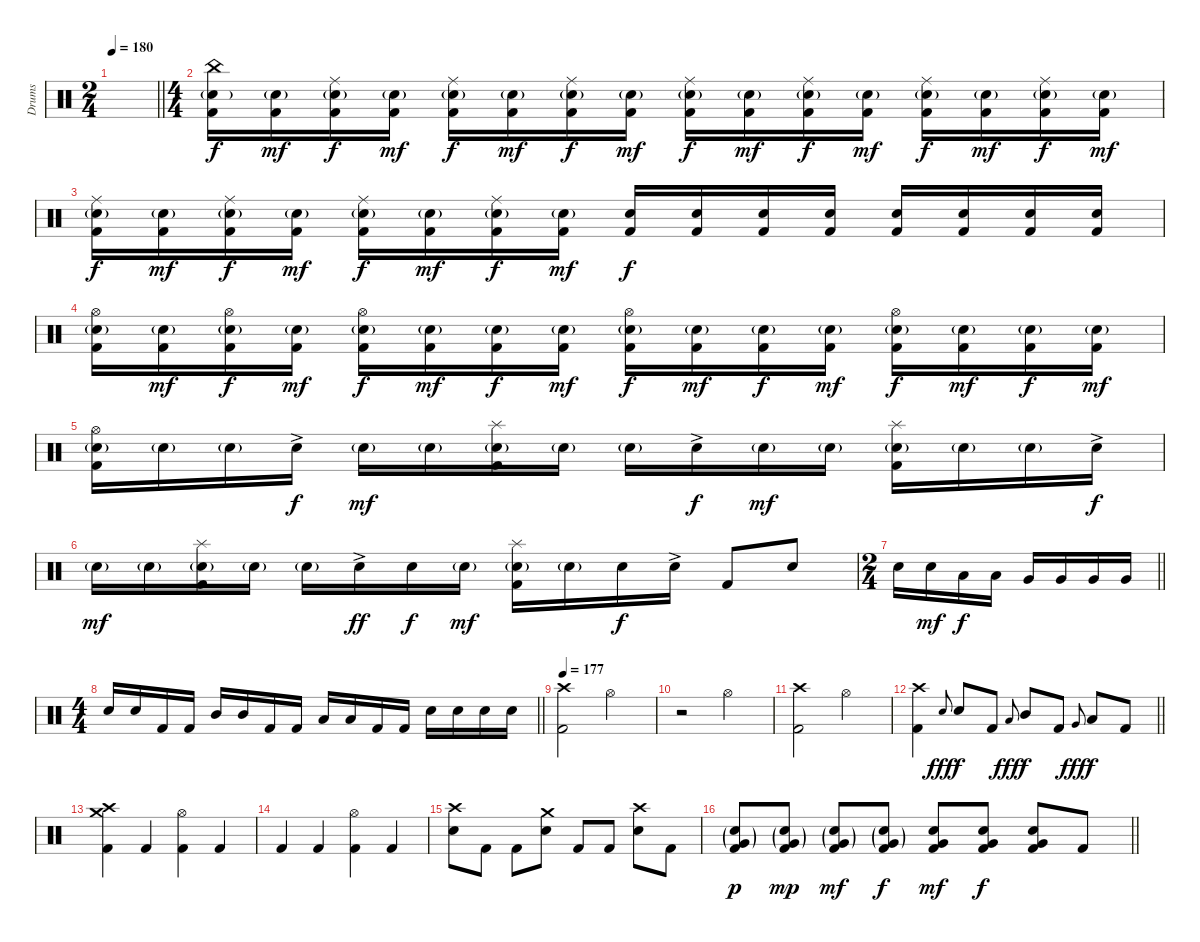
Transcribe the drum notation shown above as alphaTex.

\track ("Drums" "Drums") {instrument percussion}
\staff {score}
\articulation defaults
\ts (2 4)
\tempo 180
\clef neutral
\barLineRight lightlight
\ks c
|
\ts (4 4)
("China (hit)" "Electric Snare (hit)"{g} "Kick (hit) 2").16{dy f} ("Electric Snare (hit)"{g} "Kick (hit) 2").16{dy mf} ("Ride (middle)" "Electric Snare (hit)"{g} "Kick (hit) 2").16{dy f} ("Electric Snare (hit)"{g} "Kick (hit) 2").16{dy mf} ("Ride (middle)" "Electric Snare (hit)"{g} "Kick (hit) 2").16{dy f} ("Electric Snare (hit)"{g} "Kick (hit) 2").16{dy mf} ("Ride (middle)" "Electric Snare (hit)"{g} "Kick (hit) 2").16{dy f} ("Electric Snare (hit)"{g} "Kick (hit) 2").16{dy mf} ("Ride (middle)" "Electric Snare (hit)"{g} "Kick (hit) 2").16{dy f} ("Electric Snare (hit)"{g} "Kick (hit) 2").16{dy mf} ("Ride (middle)" "Electric Snare (hit)"{g} "Kick (hit) 2").16{dy f} ("Electric Snare (hit)"{g} "Kick (hit) 2").16{dy mf} ("Ride (middle)" "Electric Snare (hit)"{g} "Kick (hit) 2").16{dy f} ("Electric Snare (hit)"{g} "Kick (hit) 2").16{dy mf} ("Ride (middle)" "Electric Snare (hit)"{g} "Kick (hit) 2").16{dy f} ("Electric Snare (hit)"{g} "Kick (hit) 2").16{dy mf} |
("Ride (middle)" "Electric Snare (hit)"{g} "Kick (hit) 2").16{dy f} ("Electric Snare (hit)"{g} "Kick (hit) 2").16{dy mf} ("Ride (middle)" "Electric Snare (hit)"{g} "Kick (hit) 2").16{dy f} ("Electric Snare (hit)"{g} "Kick (hit) 2").16{dy mf} ("Ride (middle)" "Electric Snare (hit)"{g} "Kick (hit) 2").16{dy f} ("Electric Snare (hit)"{g} "Kick (hit) 2").16{dy mf} ("Ride (middle)" "Electric Snare (hit)"{g} "Kick (hit) 2").16{dy f} ("Electric Snare (hit)"{g} "Kick (hit) 2").16{dy mf} ("Electric Snare (hit)" "Kick (hit) 2").16{dy f} ("Electric Snare (hit)" "Kick (hit) 2").16 ("Electric Snare (hit)" "Kick (hit) 2").16 ("Electric Snare (hit)" "Kick (hit) 2").16 ("Electric Snare (hit)" "Kick (hit) 2").16 ("Electric Snare (hit)" "Kick (hit) 2").16 ("Electric Snare (hit)" "Kick (hit) 2").16 ("Electric Snare (hit)" "Kick (hit) 2").16 |
("Hi-Hat (open)" "Electric Snare (hit)"{g} "Kick (hit) 2").16 ("Electric Snare (hit)"{g} "Kick (hit) 2").16{dy mf} ("Hi-Hat (open)" "Electric Snare (hit)"{g} "Kick (hit) 2").16{dy f} ("Electric Snare (hit)"{g} "Kick (hit) 2").16{dy mf} ("Hi-Hat (open)" "Electric Snare (hit)"{g} "Kick (hit) 2").16{dy f} ("Electric Snare (hit)"{g} "Kick (hit) 2").16{dy mf} ("Electric Snare (hit)"{g} "Kick (hit) 2").16{dy f} ("Electric Snare (hit)"{g} "Kick (hit) 2").16{dy mf} ("Hi-Hat (open)" "Electric Snare (hit)"{g} "Kick (hit) 2").16{dy f} ("Electric Snare (hit)"{g} "Kick (hit) 2").16{dy mf} ("Electric Snare (hit)"{g} "Kick (hit) 2").16{dy f} ("Electric Snare (hit)"{g} "Kick (hit) 2").16{dy mf} ("Hi-Hat (open)" "Electric Snare (hit)"{g} "Kick (hit) 2").16{dy f} ("Electric Snare (hit)"{g} "Kick (hit) 2").16{dy mf} ("Electric Snare (hit)"{g} "Kick (hit) 2").16{dy f} ("Electric Snare (hit)"{g} "Kick (hit) 2").16{dy mf} |
("Hi-Hat (open)" "Electric Snare (hit)"{g} "Kick (hit) 2").16 "Electric Snare (hit)"{g}.16 "Electric Snare (hit)"{g}.16 "Electric Snare (hit)"{ac}.16{dy f} "Electric Snare (hit)"{g}.16{dy mf} "Electric Snare (hit)"{g}.16 ("Splash (hit)" "Electric Snare (hit)"{g} "Kick (hit) 2").16 "Electric Snare (hit)"{g}.16 "Electric Snare (hit)"{g}.16 "Electric Snare (hit)"{ac}.16{dy f} "Electric Snare (hit)"{g}.16{dy mf} "Electric Snare (hit)"{g}.16 ("Splash (hit)" "Electric Snare (hit)"{g} "Kick (hit) 2").16 "Electric Snare (hit)"{g}.16 "Electric Snare (hit)"{g}.16 "Electric Snare (hit)"{ac}.16{dy f} |
"Electric Snare (hit)"{g}.16{dy mf} "Electric Snare (hit)"{g}.16 ("Splash (hit)" "Electric Snare (hit)"{g} "Kick (hit) 2").16 "Electric Snare (hit)"{g}.16 "Electric Snare (hit)"{g}.16 "Electric Snare (hit)"{ac}.16{dy ff} "Electric Snare (hit)".16{dy f} "Electric Snare (hit)"{g}.16{dy mf} ("Splash (hit)" "Electric Snare (hit)"{g} "Kick (hit) 2").16 "Electric Snare (hit)"{g}.16 "Electric Snare (hit)".16{dy f} "Electric Snare (hit)"{ac}.16 "Kick (hit) 2".8 "Electric Snare (hit)".8 |
\ts (2 4)
\barLineRight lightlight "Electric Snare (hit)".16 "Electric Snare (hit)".16{dy mf} "Low Tom (hit)".16{dy f} "Low Tom (hit)".16 "Very Low Tom (hit)".16 "Very Low Tom (hit)".16 "Very Low Tom (hit)".16 "Very Low Tom (hit)".16
|
\ts (4 4)
\barLineRight lightlight "Electric Snare (hit)".16 "Electric Snare (hit)".16 "Kick (hit) 2".16 "Kick (hit) 2".16 "Mid Tom (hit)".16 "Mid Tom (hit)".16 "Kick (hit) 2".16 "Kick (hit) 2".16 "Low Tom (hit)".16 "Low Tom (hit)".16 "Kick (hit) 2".16 "Kick (hit) 2".16 "Electric Snare (hit)".16 "Electric Snare (hit)".16 "Electric Snare (hit)".16 "Electric Snare (hit)".16
|
\section ("" "")
\tempo 177
("Crash high (hit)" "Kick (hit) 2").2 "Hi-Hat (open)".2 |
r.2 "Hi-Hat (open)".2 |
("Crash high (hit)" "Kick (hit) 2").2 "Hi-Hat (open)".2 |
\barLineRight lightlight
("Crash high (hit)" "Kick (hit) 2").4 "Electric Snare (hit)".8{gr onbeat dy fff} "Electric Snare (hit)".8{dy f} "Kick (hit) 2".8 "Low Tom (hit)".8{gr onbeat dy fff} "Mid Tom (hit)".8{dy f} "Kick (hit) 2".8 "Very Low Tom (hit)".8{gr onbeat dy fff} "Low Tom (hit)".8{dy f} "Kick (hit) 2".8 |
("Crash high (hit)" "Crash medium (hit)" "Kick (hit) 2").4 "Kick (hit) 2".4 ("Hi-Hat (open)" "Kick (hit) 2").4 "Kick (hit) 2".4 |
"Kick (hit) 2".4 "Kick (hit) 2".4 ("Hi-Hat (open)" "Kick (hit) 2").4 "Kick (hit) 2".4 |
("Crash high (hit)" "Electric Snare (hit)").8 "Kick (hit) 2".8 "Kick (hit) 2".8 ("Crash medium (hit)" "Electric Snare (hit)").8 "Kick (hit) 2".8 "Kick (hit) 2".8 ("Crash high (hit)" "Electric Snare (hit)").8 "Kick (hit) 2".8 |
\barLineRight lightlight
("Electric Snare (hit)"{g} "Very Low Tom (hit)"{g} "Kick (hit) 2").8{dy p} ("Electric Snare (hit)"{g} "Very Low Tom (hit)"{g} "Kick (hit) 2").8{dy mp} ("Electric Snare (hit)"{g} "Very Low Tom (hit)"{g} "Kick (hit) 2").8{dy mf} ("Electric Snare (hit)"{g} "Very Low Tom (hit)"{g} "Kick (hit) 2").8{dy f} ("Electric Snare (hit)" "Very Low Tom (hit)" "Kick (hit) 2").8{dy mf} ("Electric Snare (hit)" "Very Low Tom (hit)" "Kick (hit) 2").8{dy f} ("Electric Snare (hit)" "Very Low Tom (hit)" "Kick (hit) 2").8 "Kick (hit) 2".8
